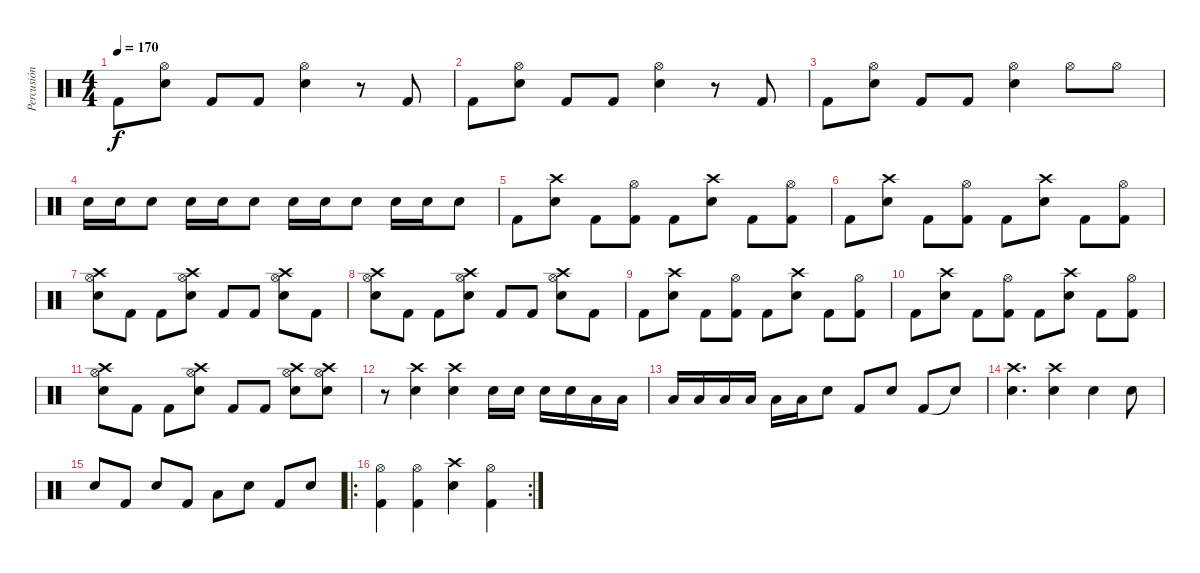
\track ("Percusión" "Percusión") {instrument percussion}
\staff {score}
\articulation defaults
\ts (4 4)
\tempo 170
\clef neutral
\ks c "Kick (hit) 2".8{dy f}
("Hi-Hat (open)" "Electric Snare (hit)").8 "Kick (hit) 2".8 "Kick (hit) 2".8 ("Hi-Hat (open)" "Electric Snare (hit)").4 r.8 "Kick (hit) 2".8 |
"Kick (hit) 2".8 ("Hi-Hat (open)" "Electric Snare (hit)").8 "Kick (hit) 2".8 "Kick (hit) 2".8 ("Hi-Hat (open)" "Electric Snare (hit)").4 r.8 "Kick (hit) 2".8 |
"Kick (hit) 2".8 ("Hi-Hat (open)" "Electric Snare (hit)").8 "Kick (hit) 2".8 "Kick (hit) 2".8 ("Hi-Hat (open)" "Electric Snare (hit)").4 "Hi-Hat (open)".8 "Hi-Hat (open)".8 |
"Electric Snare (hit)".16 "Electric Snare (hit)".16 "Electric Snare (hit)".8 "Electric Snare (hit)".16 "Electric Snare (hit)".16 "Electric Snare (hit)".8 "Electric Snare (hit)".16 "Electric Snare (hit)".16 "Electric Snare (hit)".8 "Electric Snare (hit)".16 "Electric Snare (hit)".16 "Electric Snare (hit)".8 |
"Kick (hit) 2".8 ("Crash high (hit)" "Electric Snare (hit)").8 "Kick (hit) 2".8 ("Hi-Hat (open)" "Kick (hit) 2").8 "Kick (hit) 2".8 ("Crash high (hit)" "Electric Snare (hit)").8 "Kick (hit) 2".8 ("Hi-Hat (open)" "Kick (hit) 2").8 |
"Kick (hit) 2".8 ("Crash high (hit)" "Electric Snare (hit)").8 "Kick (hit) 2".8 ("Hi-Hat (open)" "Kick (hit) 2").8 "Kick (hit) 2".8 ("Crash high (hit)" "Electric Snare (hit)").8 "Kick (hit) 2".8 ("Hi-Hat (open)" "Kick (hit) 2").8 |
("Crash high (hit)" "Hi-Hat (open)" "Electric Snare (hit)").8 "Kick (hit) 2".8 "Kick (hit) 2".8 ("Crash high (hit)" "Hi-Hat (open)" "Electric Snare (hit)").8 "Kick (hit) 2".8 "Kick (hit) 2".8 ("Crash high (hit)" "Hi-Hat (open)" "Electric Snare (hit)").8 "Kick (hit) 2".8 |
("Crash high (hit)" "Hi-Hat (open)" "Electric Snare (hit)").8 "Kick (hit) 2".8 "Kick (hit) 2".8 ("Crash high (hit)" "Hi-Hat (open)" "Electric Snare (hit)").8 "Kick (hit) 2".8 "Kick (hit) 2".8 ("Crash high (hit)" "Hi-Hat (open)" "Electric Snare (hit)").8 "Kick (hit) 2".8 |
"Kick (hit) 2".8 ("Crash high (hit)" "Electric Snare (hit)").8 "Kick (hit) 2".8 ("Hi-Hat (open)" "Kick (hit) 2").8 "Kick (hit) 2".8 ("Crash high (hit)" "Electric Snare (hit)").8 "Kick (hit) 2".8 ("Hi-Hat (open)" "Kick (hit) 2").8 |
"Kick (hit) 2".8 ("Crash high (hit)" "Electric Snare (hit)").8 "Kick (hit) 2".8 ("Hi-Hat (open)" "Kick (hit) 2").8 "Kick (hit) 2".8 ("Crash high (hit)" "Electric Snare (hit)").8 "Kick (hit) 2".8 ("Hi-Hat (open)" "Kick (hit) 2").8 |
("Crash high (hit)" "Hi-Hat (open)" "Electric Snare (hit)").8 "Kick (hit) 2".8 "Kick (hit) 2".8 ("Crash high (hit)" "Hi-Hat (open)" "Electric Snare (hit)").8 "Kick (hit) 2".8 "Kick (hit) 2".8 ("Crash high (hit)" "Hi-Hat (open)" "Electric Snare (hit)").8 ("Crash high (hit)" "Hi-Hat (open)" "Electric Snare (hit)").8 |
r.8 ("Crash high (hit)" "Electric Snare (hit)").4 ("Crash high (hit)" "Electric Snare (hit)").4 "Electric Snare (hit)".16 "Electric Snare (hit)".16 "Electric Snare (hit)".16 "Electric Snare (hit)".16 "Low Tom (hit)".16 "Low Tom (hit)".16 |
"Low Tom (hit)".16 "Low Tom (hit)".16 "Low Tom (hit)".16 "Low Tom (hit)".16 "Low Tom (hit)".16 "Low Tom (hit)".16 "Electric Snare (hit)".8 "Kick (hit) 2".8 "Electric Snare (hit)".8 "Kick (hit) 2".8 "Snare (hit)"{t}.8 |
("Crash high (hit)" "Electric Snare (hit)").4{d} ("Crash high (hit)" "Electric Snare (hit)").4 "Electric Snare (hit)".4 "Electric Snare (hit)".8 |
"Electric Snare (hit)".8 "Kick (hit) 2".8 "Electric Snare (hit)".8 "Kick (hit) 2".8 "Low Tom (hit)".8 "Electric Snare (hit)".8 "Kick (hit) 2".8 "Electric Snare (hit)".8 |
\ro
\rc 2
("Hi-Hat (open)" "Kick (hit) 2").4 ("Hi-Hat (open)" "Kick (hit) 2").4 ("Crash high (hit)" "Electric Snare (hit)").4 ("Hi-Hat (open)" "Kick (hit) 2").4
